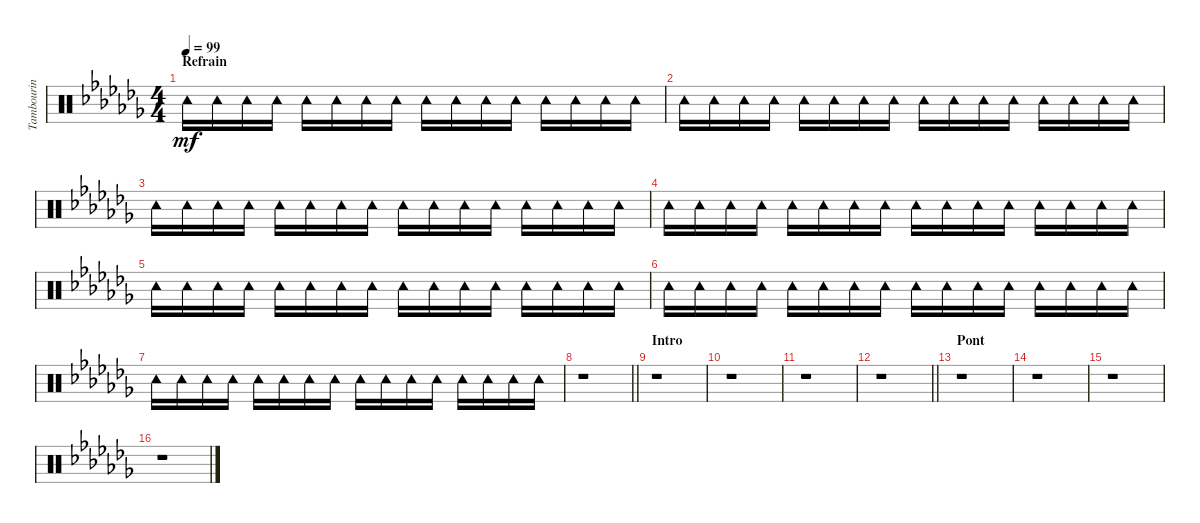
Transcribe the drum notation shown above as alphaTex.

\track ("Tambourin" "Tambourin") {instrument percussion}
\staff {score}
\articulation defaults
\ts (4 4)
\section ("" "Refrain")
\tempo 99
\clef neutral
\ks cb "Tambourine (hit)".16{dy mf} "Tambourine (hit)".16 "Tambourine (hit)".16 "Tambourine (hit)".16 "Tambourine (hit)".16 "Tambourine (hit)".16 "Tambourine (hit)".16 "Tambourine (hit)".16 "Tambourine (hit)".16 "Tambourine (hit)".16 "Tambourine (hit)".16 "Tambourine (hit)".16 "Tambourine (hit)".16 "Tambourine (hit)".16 "Tambourine (hit)".16 "Tambourine (hit)".16
|
"Tambourine (hit)".16 "Tambourine (hit)".16 "Tambourine (hit)".16 "Tambourine (hit)".16 "Tambourine (hit)".16 "Tambourine (hit)".16 "Tambourine (hit)".16 "Tambourine (hit)".16 "Tambourine (hit)".16 "Tambourine (hit)".16 "Tambourine (hit)".16 "Tambourine (hit)".16 "Tambourine (hit)".16 "Tambourine (hit)".16 "Tambourine (hit)".16 "Tambourine (hit)".16 |
"Tambourine (hit)".16 "Tambourine (hit)".16 "Tambourine (hit)".16 "Tambourine (hit)".16 "Tambourine (hit)".16 "Tambourine (hit)".16 "Tambourine (hit)".16 "Tambourine (hit)".16 "Tambourine (hit)".16 "Tambourine (hit)".16 "Tambourine (hit)".16 "Tambourine (hit)".16 "Tambourine (hit)".16 "Tambourine (hit)".16 "Tambourine (hit)".16 "Tambourine (hit)".16 |
"Tambourine (hit)".16 "Tambourine (hit)".16 "Tambourine (hit)".16 "Tambourine (hit)".16 "Tambourine (hit)".16 "Tambourine (hit)".16 "Tambourine (hit)".16 "Tambourine (hit)".16 "Tambourine (hit)".16 "Tambourine (hit)".16 "Tambourine (hit)".16 "Tambourine (hit)".16 "Tambourine (hit)".16 "Tambourine (hit)".16 "Tambourine (hit)".16 "Tambourine (hit)".16 |
"Tambourine (hit)".16 "Tambourine (hit)".16 "Tambourine (hit)".16 "Tambourine (hit)".16 "Tambourine (hit)".16 "Tambourine (hit)".16 "Tambourine (hit)".16 "Tambourine (hit)".16 "Tambourine (hit)".16 "Tambourine (hit)".16 "Tambourine (hit)".16 "Tambourine (hit)".16 "Tambourine (hit)".16 "Tambourine (hit)".16 "Tambourine (hit)".16 "Tambourine (hit)".16 |
"Tambourine (hit)".16 "Tambourine (hit)".16 "Tambourine (hit)".16 "Tambourine (hit)".16 "Tambourine (hit)".16 "Tambourine (hit)".16 "Tambourine (hit)".16 "Tambourine (hit)".16 "Tambourine (hit)".16 "Tambourine (hit)".16 "Tambourine (hit)".16 "Tambourine (hit)".16 "Tambourine (hit)".16 "Tambourine (hit)".16 "Tambourine (hit)".16 "Tambourine (hit)".16 |
"Tambourine (hit)".16 "Tambourine (hit)".16 "Tambourine (hit)".16 "Tambourine (hit)".16 "Tambourine (hit)".16 "Tambourine (hit)".16 "Tambourine (hit)".16 "Tambourine (hit)".16 "Tambourine (hit)".16 "Tambourine (hit)".16 "Tambourine (hit)".16 "Tambourine (hit)".16 "Tambourine (hit)".16 "Tambourine (hit)".16 "Tambourine (hit)".16 "Tambourine (hit)".16 |
\barLineRight lightlight
r.1 |
\section ("" "Intro")
r.1 |
r.1 |
r.1 |
\barLineRight lightlight
r.1 |
\section ("" "Pont")
r.1 |
r.1 |
r.1 |
r.1
